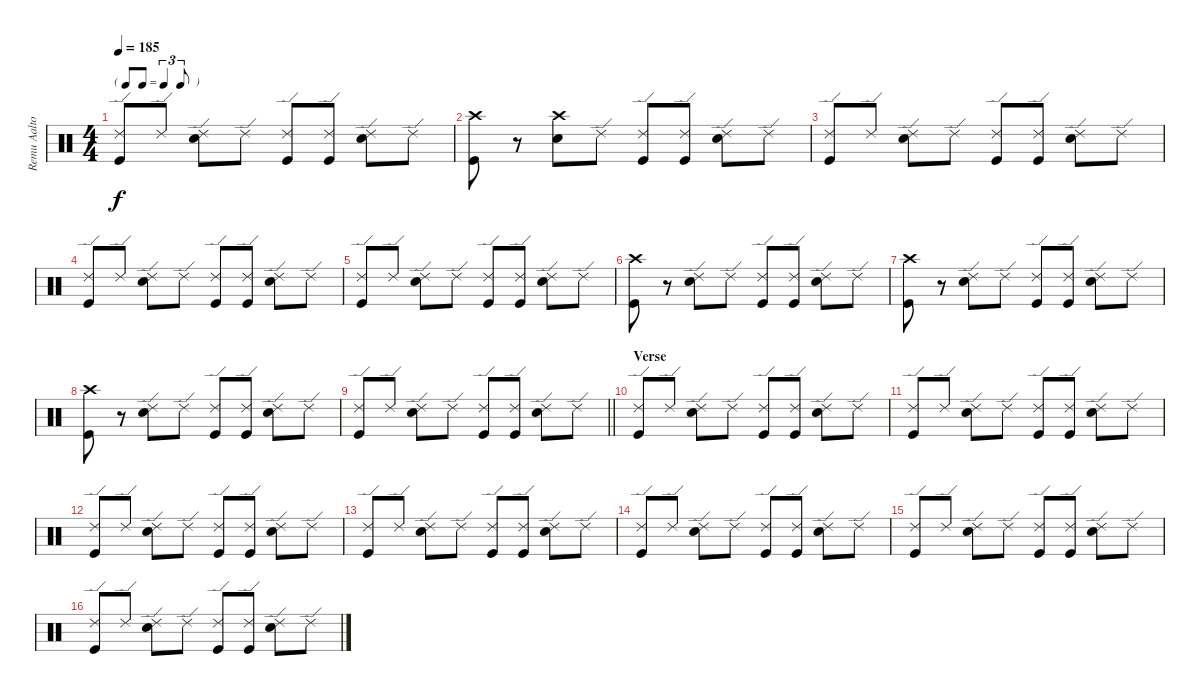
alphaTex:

\track ("Remu Aaltonen" "Remu Aalto") {instrument percussion}
\staff {score}
\articulation defaults
\ts (4 4)
\tf triplet8th
\tempo 185
\clef neutral
\ks c
("Ride (edge) 2" "Kick (hit)").8{dy f} "Ride (edge) 2".8 ("Ride (edge) 2" "Snare (hit) 2").8 "Ride (edge) 2".8 ("Ride (edge) 2" "Kick (hit)").8 ("Ride (edge) 2" "Kick (hit)").8 ("Ride (edge) 2" "Snare (hit) 2").8 "Ride (edge) 2".8 |
("Crash high (hit)" "Kick (hit)").8 r.8 ("Crash high (hit)" "Snare (hit) 2").8 "Ride (edge) 2".8 ("Ride (edge) 2" "Kick (hit)").8 ("Ride (edge) 2" "Kick (hit)").8 ("Ride (edge) 2" "Snare (hit) 2").8 "Ride (edge) 2".8 |
("Ride (edge) 2" "Kick (hit)").8 "Ride (edge) 2".8 ("Ride (edge) 2" "Snare (hit) 2").8 "Ride (edge) 2".8 ("Ride (edge) 2" "Kick (hit)").8 ("Ride (edge) 2" "Kick (hit)").8 ("Ride (edge) 2" "Snare (hit) 2").8 "Ride (edge) 2".8 |
("Ride (edge) 2" "Kick (hit)").8 "Ride (edge) 2".8 ("Ride (edge) 2" "Snare (hit) 2").8 "Ride (edge) 2".8 ("Ride (edge) 2" "Kick (hit)").8 ("Ride (edge) 2" "Kick (hit)").8 ("Ride (edge) 2" "Snare (hit) 2").8 "Ride (edge) 2".8 |
("Ride (edge) 2" "Kick (hit)").8 "Ride (edge) 2".8 ("Ride (edge) 2" "Snare (hit) 2").8 "Ride (edge) 2".8 ("Ride (edge) 2" "Kick (hit)").8 ("Ride (edge) 2" "Kick (hit)").8 ("Ride (edge) 2" "Snare (hit) 2").8 "Ride (edge) 2".8 |
("Crash high (hit)" "Kick (hit)").8 r.8 ("Ride (edge) 2" "Snare (hit) 2").8 "Ride (edge) 2".8 ("Ride (edge) 2" "Kick (hit)").8 ("Ride (edge) 2" "Kick (hit)").8 ("Ride (edge) 2" "Snare (hit) 2").8 "Ride (edge) 2".8 |
("Crash high (hit)" "Kick (hit)").8 r.8 ("Ride (edge) 2" "Snare (hit) 2").8 "Ride (edge) 2".8 ("Ride (edge) 2" "Kick (hit)").8 ("Ride (edge) 2" "Kick (hit)").8 ("Ride (edge) 2" "Snare (hit) 2").8 "Ride (edge) 2".8 |
("Crash high (hit)" "Kick (hit)").8 r.8 ("Ride (edge) 2" "Snare (hit) 2").8 "Ride (edge) 2".8 ("Ride (edge) 2" "Kick (hit)").8 ("Ride (edge) 2" "Kick (hit)").8 ("Ride (edge) 2" "Snare (hit) 2").8 "Ride (edge) 2".8 |
\barLineRight lightlight
("Ride (edge) 2" "Kick (hit)").8 "Ride (edge) 2".8 ("Ride (edge) 2" "Snare (hit) 2").8 "Ride (edge) 2".8 ("Ride (edge) 2" "Kick (hit)").8 ("Ride (edge) 2" "Kick (hit)").8 ("Ride (edge) 2" "Snare (hit) 2").8 "Ride (edge) 2".8 |
\section ("" "Verse")
("Ride (edge) 2" "Kick (hit)").8 "Ride (edge) 2".8 ("Ride (edge) 2" "Snare (hit) 2").8 "Ride (edge) 2".8 ("Ride (edge) 2" "Kick (hit)").8 ("Ride (edge) 2" "Kick (hit)").8 ("Ride (edge) 2" "Snare (hit) 2").8 "Ride (edge) 2".8 |
("Ride (edge) 2" "Kick (hit)").8 "Ride (edge) 2".8 ("Ride (edge) 2" "Snare (hit) 2").8 "Ride (edge) 2".8 ("Ride (edge) 2" "Kick (hit)").8 ("Ride (edge) 2" "Kick (hit)").8 ("Ride (edge) 2" "Snare (hit) 2").8 "Ride (edge) 2".8 |
("Ride (edge) 2" "Kick (hit)").8 "Ride (edge) 2".8 ("Ride (edge) 2" "Snare (hit) 2").8 "Ride (edge) 2".8 ("Ride (edge) 2" "Kick (hit)").8 ("Ride (edge) 2" "Kick (hit)").8 ("Ride (edge) 2" "Snare (hit) 2").8 "Ride (edge) 2".8 |
("Ride (edge) 2" "Kick (hit)").8 "Ride (edge) 2".8 ("Ride (edge) 2" "Snare (hit) 2").8 "Ride (edge) 2".8 ("Ride (edge) 2" "Kick (hit)").8 ("Ride (edge) 2" "Kick (hit)").8 ("Ride (edge) 2" "Snare (hit) 2").8 "Ride (edge) 2".8 |
("Ride (edge) 2" "Kick (hit)").8 "Ride (edge) 2".8 ("Ride (edge) 2" "Snare (hit) 2").8 "Ride (edge) 2".8 ("Ride (edge) 2" "Kick (hit)").8 ("Ride (edge) 2" "Kick (hit)").8 ("Ride (edge) 2" "Snare (hit) 2").8 "Ride (edge) 2".8 |
("Ride (edge) 2" "Kick (hit)").8 "Ride (edge) 2".8 ("Ride (edge) 2" "Snare (hit) 2").8 "Ride (edge) 2".8 ("Ride (edge) 2" "Kick (hit)").8 ("Ride (edge) 2" "Kick (hit)").8 ("Ride (edge) 2" "Snare (hit) 2").8 "Ride (edge) 2".8 |
("Ride (edge) 2" "Kick (hit)").8 "Ride (edge) 2".8 ("Ride (edge) 2" "Snare (hit) 2").8 "Ride (edge) 2".8 ("Ride (edge) 2" "Kick (hit)").8 ("Ride (edge) 2" "Kick (hit)").8 ("Ride (edge) 2" "Snare (hit) 2").8 "Ride (edge) 2".8
